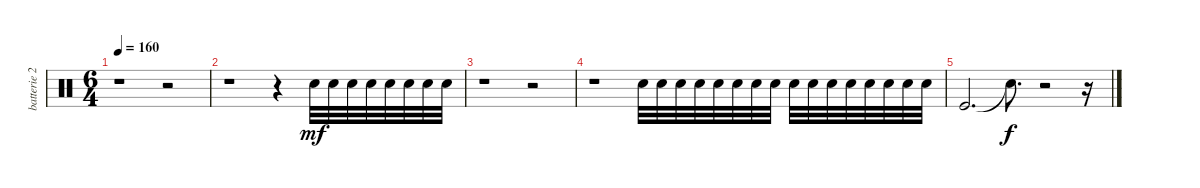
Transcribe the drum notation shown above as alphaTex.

\track ("batterie 2" "batterie 2") {instrument percussion}
\staff {score}
\articulation defaults
\ts (6 4)
\tempo 160
\clef neutral
\ks c
r.1{dy mf} r.2 |
r.1 r.4 "Electric Snare (hit)".32 "Electric Snare (hit)".32 "Electric Snare (hit)".32 "Electric Snare (hit)".32 "Electric Snare (hit)".32 "Electric Snare (hit)".32 "Electric Snare (hit)".32 "Electric Snare (hit)".32 |
r.1 r.2 |
r.1 "Electric Snare (hit)".32 "Electric Snare (hit)".32 "Electric Snare (hit)".32 "Electric Snare (hit)".32 "Electric Snare (hit)".32 "Electric Snare (hit)".32 "Electric Snare (hit)".32 "Electric Snare (hit)".32 "Electric Snare (hit)".32 "Electric Snare (hit)".32 "Electric Snare (hit)".32 "Electric Snare (hit)".32 "Electric Snare (hit)".32 "Electric Snare (hit)".32 "Electric Snare (hit)".32 "Electric Snare (hit)".32 |
"Kick (hit)".2{d} "Snare (hit)"{t}.8{d dy f} r.2 r.16
